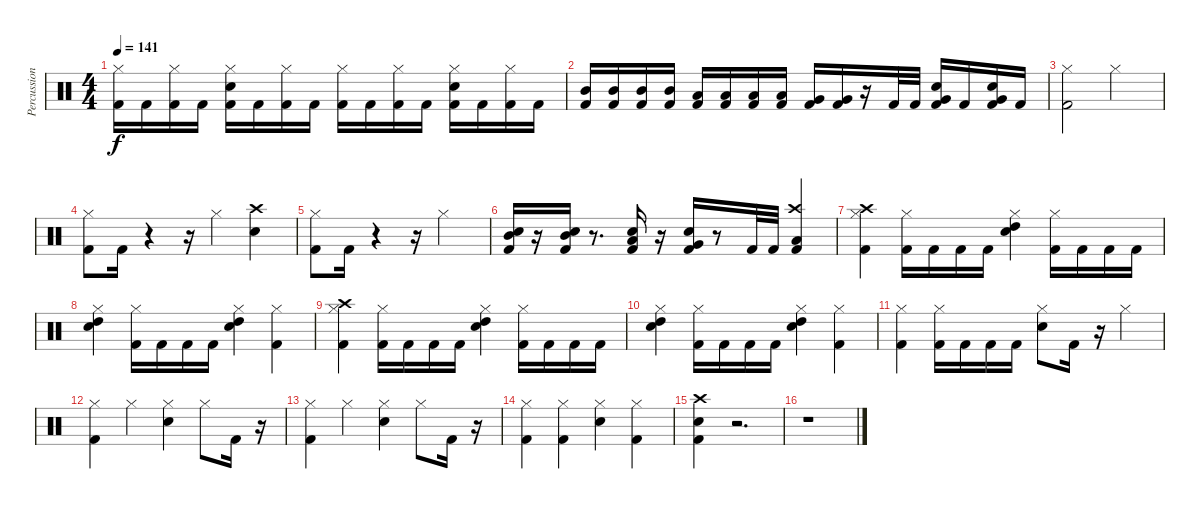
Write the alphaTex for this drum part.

\track ("Percussion" "Percussion") {instrument percussion}
\staff {score}
\articulation defaults
\ts (4 4)
\tempo 141
\clef neutral
\ks c
("Kick (hit) 2" "Hi-Hat (closed)").16{dy f} "Kick (hit) 2".16 ("Kick (hit) 2" "Hi-Hat (closed)").16 "Kick (hit) 2".16 ("Kick (hit) 2" "Snare (hit) 2" "Hi-Hat (closed)").16 "Kick (hit) 2".16 ("Kick (hit) 2" "Hi-Hat (closed)").16 "Kick (hit) 2".16 ("Kick (hit) 2" "Hi-Hat (closed)").16 "Kick (hit) 2".16 ("Kick (hit) 2" "Hi-Hat (closed)").16 "Kick (hit) 2".16 ("Kick (hit) 2" "Snare (hit) 2" "Hi-Hat (closed)").16 "Kick (hit) 2".16 ("Kick (hit) 2" "Hi-Hat (closed)").16 "Kick (hit) 2".16 |
("Kick (hit) 2" "Mid Tom (hit)").16 ("Kick (hit) 2" "Mid Tom (hit)").16 ("Kick (hit) 2" "Mid Tom (hit)").16 ("Kick (hit) 2" "Mid Tom (hit)").16 ("Kick (hit) 2" "Low Tom (hit)").16 ("Kick (hit) 2" "Low Tom (hit)").16 ("Kick (hit) 2" "Low Tom (hit)").16 ("Kick (hit) 2" "Low Tom (hit)").16 ("Kick (hit) 2" "Very Low Tom (hit)").16 ("Kick (hit) 2" "Very Low Tom (hit)").16 r.16 "Kick (hit) 2".32 "Kick (hit) 2".32 ("Kick (hit) 2" "Snare (hit) 2" "Very Low Tom (hit)").16 "Kick (hit) 2".16 ("Kick (hit) 2" "Snare (hit) 2" "Very Low Tom (hit)").16 "Kick (hit) 2".16 |
("Kick (hit) 2" "Hi-Hat (closed)").2 "Hi-Hat (closed)".2 |
("Kick (hit) 2" "Hi-Hat (closed)").8 "Kick (hit) 2".16 r.4 r.16 "Hi-Hat (closed)".4 ("Snare (hit) 2" "Crash high (hit)").4 |
("Kick (hit) 2" "Hi-Hat (closed)").8 "Kick (hit) 2".16 r.4 r.16 "Hi-Hat (closed)".2 |
("Kick (hit) 2" "Snare (hit) 2" "Mid Tom (hit)").16 r.16 ("Kick (hit) 2" "Snare (hit) 2" "Mid Tom (hit)").16 r.8{d} ("Kick (hit) 2" "Snare (hit) 2" "Low Tom (hit)").16 r.16 ("Kick (hit) 2" "Snare (hit) 2" "Very Low Tom (hit)").16 r.8 "Kick (hit) 2".32 "Kick (hit) 2".32 ("Kick (hit) 2" "Low Floor Tom (hit)" "Crash high (hit)").4 |
("Kick (hit) 2" "Hi-Hat (closed)" "Crash high (hit)").4 ("Kick (hit) 2" "Hi-Hat (closed)").16 "Kick (hit) 2".16 "Kick (hit) 2".16 "Kick (hit) 2".16 ("Snare (hit) 2" "Hi-Hat (closed)" "High Tom (hit)").4 ("Kick (hit) 2" "Hi-Hat (closed)").16 "Kick (hit) 2".16 "Kick (hit) 2".16 "Kick (hit) 2".16 |
("Snare (hit) 2" "Hi-Hat (closed)" "High Tom (hit)").4 ("Kick (hit) 2" "Hi-Hat (closed)").16 "Kick (hit) 2".16 "Kick (hit) 2".16 "Kick (hit) 2".16 ("Snare (hit) 2" "Hi-Hat (closed)" "High Tom (hit)").4 ("Kick (hit) 2" "Hi-Hat (closed)").4 |
("Kick (hit) 2" "Hi-Hat (closed)" "Crash high (hit)").4 ("Kick (hit) 2" "Hi-Hat (closed)").16 "Kick (hit) 2".16 "Kick (hit) 2".16 "Kick (hit) 2".16 ("Snare (hit) 2" "Hi-Hat (closed)" "High Tom (hit)").4 ("Kick (hit) 2" "Hi-Hat (closed)").16 "Kick (hit) 2".16 "Kick (hit) 2".16 "Kick (hit) 2".16 |
("Snare (hit) 2" "Hi-Hat (closed)" "High Tom (hit)").4 ("Kick (hit) 2" "Hi-Hat (closed)").16 "Kick (hit) 2".16 "Kick (hit) 2".16 "Kick (hit) 2".16 ("Snare (hit) 2" "Hi-Hat (closed)" "High Tom (hit)").4 ("Kick (hit) 2" "Hi-Hat (closed)").4 |
("Kick (hit) 2" "Hi-Hat (closed)").4 ("Kick (hit) 2" "Hi-Hat (closed)").16 "Kick (hit) 2".16 "Kick (hit) 2".16 "Kick (hit) 2".16 ("Snare (hit) 2" "Hi-Hat (closed)").8 "Kick (hit) 2".16 r.16 "Hi-Hat (closed)".4 |
("Kick (hit) 2" "Hi-Hat (closed)").4 "Hi-Hat (closed)".4 ("Snare (hit) 2" "Hi-Hat (closed)").4 "Hi-Hat (closed)".8 "Kick (hit) 2".16 r.16 |
("Kick (hit) 2" "Hi-Hat (closed)").4 "Hi-Hat (closed)".4 ("Snare (hit) 2" "Hi-Hat (closed)").4 "Hi-Hat (closed)".8 "Kick (hit) 2".16 r.16 |
("Kick (hit) 2" "Hi-Hat (closed)").4 ("Kick (hit) 2" "Hi-Hat (closed)").4 ("Snare (hit) 2" "Hi-Hat (closed)").4 ("Kick (hit) 2" "Hi-Hat (closed)").4 |
("Kick (hit) 2" "Snare (hit) 2" "Crash high (hit)").4 r.2{d} |
r.1
